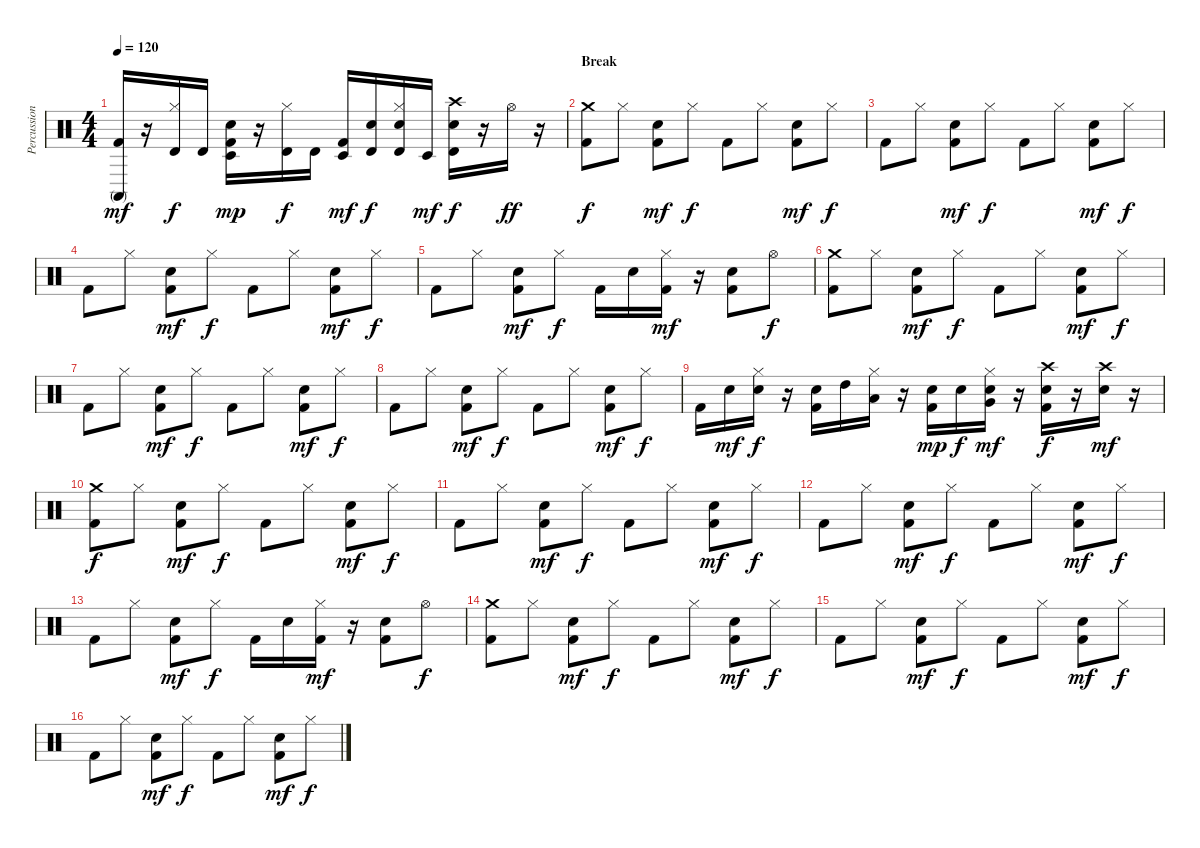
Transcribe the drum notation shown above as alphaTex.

\track ("Percussions" "Percussion") {instrument percussion}
\staff {score}
\articulation defaults
\ts (4 4)
\tempo 120
\clef neutral
\ks c
("Conga high (mute)" "Kick (hit) 2").16{dy mf} r.16 ("Hi-Hat (closed)" "Timbale high (hit)").16{dy f} "Timbale high (hit)".16 ("Timbale low (hit)" "Electric Snare (hit)" "Kick (hit) 2").16{dy mp} r.16 ("Hi-Hat (closed)" "Timbale high (hit)").16{dy f} "Timbale high (hit)".16 ("Timbale low (hit)" "Kick (hit) 2").16{dy mf} ("Timbale high (hit)" "Electric Snare (hit)").16{dy f} ("Hi-Hat (closed)" "Timbale high (hit)" "Electric Snare (hit)").16 "Timbale low (hit)".16{dy mf} ("Crash high (hit)" "Timbale high (hit)" "Electric Snare (hit)").16{dy f} r.16 "Hi-Hat (open)".16{dy ff} r.16 |
\section ("" "Break")
("Crash medium (hit)" "Kick (hit) 2").8{dy f} "Hi-Hat (closed)".8 ("Electric Snare (hit)" "Kick (hit) 2").8{dy mf} "Hi-Hat (closed)".8{dy f} "Kick (hit) 2".8 "Hi-Hat (closed)".8 ("Electric Snare (hit)" "Kick (hit) 2").8{dy mf} "Hi-Hat (closed)".8{dy f} |
"Kick (hit) 2".8 "Hi-Hat (closed)".8 ("Electric Snare (hit)" "Kick (hit) 2").8{dy mf} "Hi-Hat (closed)".8{dy f} "Kick (hit) 2".8 "Hi-Hat (closed)".8 ("Electric Snare (hit)" "Kick (hit) 2").8{dy mf} "Hi-Hat (closed)".8{dy f} |
"Kick (hit) 2".8 "Hi-Hat (closed)".8 ("Electric Snare (hit)" "Kick (hit) 2").8{dy mf} "Hi-Hat (closed)".8{dy f} "Kick (hit) 2".8 "Hi-Hat (closed)".8 ("Electric Snare (hit)" "Kick (hit) 2").8{dy mf} "Hi-Hat (closed)".8{dy f} |
"Kick (hit) 2".8 "Hi-Hat (closed)".8 ("Electric Snare (hit)" "Kick (hit) 2").8{dy mf} "Hi-Hat (closed)".8{dy f} "Kick (hit) 2".16 "Electric Snare (hit)".16 ("Hi-Hat (closed)" "Kick (hit) 2").16{dy mf} r.16 ("Electric Snare (hit)" "Kick (hit) 2").8 "Hi-Hat (open)".8{dy f} |
("Crash medium (hit)" "Kick (hit) 2").8 "Hi-Hat (closed)".8 ("Electric Snare (hit)" "Kick (hit) 2").8{dy mf} "Hi-Hat (closed)".8{dy f} "Kick (hit) 2".8 "Hi-Hat (closed)".8 ("Electric Snare (hit)" "Kick (hit) 2").8{dy mf} "Hi-Hat (closed)".8{dy f} |
"Kick (hit) 2".8 "Hi-Hat (closed)".8 ("Electric Snare (hit)" "Kick (hit) 2").8{dy mf} "Hi-Hat (closed)".8{dy f} "Kick (hit) 2".8 "Hi-Hat (closed)".8 ("Electric Snare (hit)" "Kick (hit) 2").8{dy mf} "Hi-Hat (closed)".8{dy f} |
"Kick (hit) 2".8 "Hi-Hat (closed)".8 ("Electric Snare (hit)" "Kick (hit) 2").8{dy mf} "Hi-Hat (closed)".8{dy f} "Kick (hit) 2".8 "Hi-Hat (closed)".8 ("Electric Snare (hit)" "Kick (hit) 2").8{dy mf} "Hi-Hat (closed)".8{dy f} |
"Kick (hit) 2".16 "Electric Snare (hit)".16{dy mf} ("Hi-Hat (closed)" "Electric Snare (hit)").16{dy f} r.16 ("Electric Snare (hit)" "Kick (hit) 2").16 "High Tom (hit)".16 ("Hi-Hat (closed)" "Low Tom (hit)").16 r.16 ("Electric Snare (hit)" "Kick (hit) 2").16{dy mp} "Electric Snare (hit)".16{dy f} ("Hi-Hat (closed)" "Electric Snare (hit)" "Very Low Tom (hit)").16{dy mf} r.16 ("Crash high (hit)" "Electric Snare (hit)" "Kick (hit) 2").16{dy f} r.16 ("Crash high (hit)" "Electric Snare (hit)").16{dy mf} r.16 |
("Crash medium (hit)" "Kick (hit) 2").8{dy f} "Hi-Hat (closed)".8 ("Electric Snare (hit)" "Kick (hit) 2").8{dy mf} "Hi-Hat (closed)".8{dy f} "Kick (hit) 2".8 "Hi-Hat (closed)".8 ("Electric Snare (hit)" "Kick (hit) 2").8{dy mf} "Hi-Hat (closed)".8{dy f} |
"Kick (hit) 2".8 "Hi-Hat (closed)".8 ("Electric Snare (hit)" "Kick (hit) 2").8{dy mf} "Hi-Hat (closed)".8{dy f} "Kick (hit) 2".8 "Hi-Hat (closed)".8 ("Electric Snare (hit)" "Kick (hit) 2").8{dy mf} "Hi-Hat (closed)".8{dy f} |
"Kick (hit) 2".8 "Hi-Hat (closed)".8 ("Electric Snare (hit)" "Kick (hit) 2").8{dy mf} "Hi-Hat (closed)".8{dy f} "Kick (hit) 2".8 "Hi-Hat (closed)".8 ("Electric Snare (hit)" "Kick (hit) 2").8{dy mf} "Hi-Hat (closed)".8{dy f} |
"Kick (hit) 2".8 "Hi-Hat (closed)".8 ("Electric Snare (hit)" "Kick (hit) 2").8{dy mf} "Hi-Hat (closed)".8{dy f} "Kick (hit) 2".16 "Electric Snare (hit)".16 ("Hi-Hat (closed)" "Kick (hit) 2").16{dy mf} r.16 ("Electric Snare (hit)" "Kick (hit) 2").8 "Hi-Hat (open)".8{dy f} |
("Crash medium (hit)" "Kick (hit) 2").8 "Hi-Hat (closed)".8 ("Electric Snare (hit)" "Kick (hit) 2").8{dy mf} "Hi-Hat (closed)".8{dy f} "Kick (hit) 2".8 "Hi-Hat (closed)".8 ("Electric Snare (hit)" "Kick (hit) 2").8{dy mf} "Hi-Hat (closed)".8{dy f} |
"Kick (hit) 2".8 "Hi-Hat (closed)".8 ("Electric Snare (hit)" "Kick (hit) 2").8{dy mf} "Hi-Hat (closed)".8{dy f} "Kick (hit) 2".8 "Hi-Hat (closed)".8 ("Electric Snare (hit)" "Kick (hit) 2").8{dy mf} "Hi-Hat (closed)".8{dy f} |
"Kick (hit) 2".8 "Hi-Hat (closed)".8 ("Electric Snare (hit)" "Kick (hit) 2").8{dy mf} "Hi-Hat (closed)".8{dy f} "Kick (hit) 2".8 "Hi-Hat (closed)".8 ("Electric Snare (hit)" "Kick (hit) 2").8{dy mf} "Hi-Hat (closed)".8{dy f}
